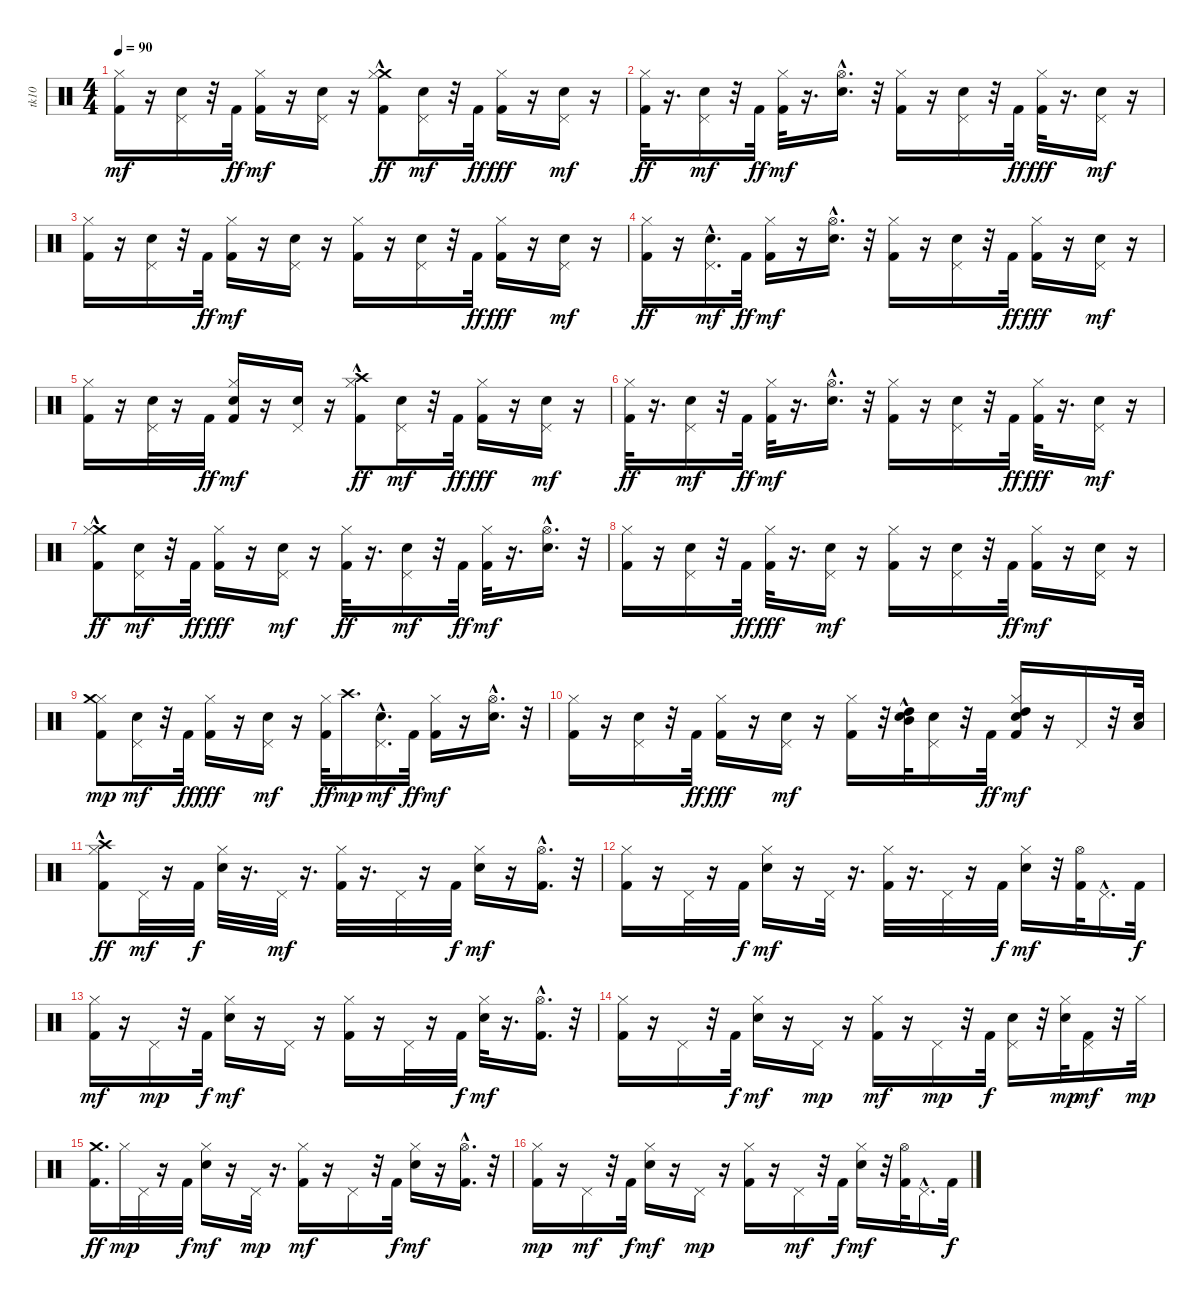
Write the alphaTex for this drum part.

\track ("tk10" "tk10") {instrument percussion}
\staff {score}
\articulation defaults
\ts (4 4)
\tempo 90
\clef neutral
\ks c
("Kick (hit) 2" "Hi-Hat (closed)").16{dy mf} r.16 ("Electric Snare (hit)" "Pedal Hi-Hat (hit)").16 r.32 "Kick (hit) 2".32{dy ff} ("Kick (hit) 2" "Hi-Hat (closed)").16{dy mf} r.16 ("Electric Snare (hit)" "Pedal Hi-Hat (hit)").16 r.16 ("Crash medium (hit)"{hac} "Hi-Hat (closed)" "Kick (hit) 2").8{dy ff} ("Electric Snare (hit)" "Pedal Hi-Hat (hit)").16{dy mf} r.32 "Kick (hit) 2".32{dy ff} ("Kick (hit) 2" "Hi-Hat (closed)").16{dy fff} r.16 ("Electric Snare (hit)" "Pedal Hi-Hat (hit)").16{dy mf} r.16 |
("Kick (hit) 2" "Hi-Hat (closed)").32{dy ff} r.16{d} ("Electric Snare (hit)" "Pedal Hi-Hat (hit)").16{dy mf} r.32 "Kick (hit) 2".32{dy ff} ("Kick (hit) 2" "Hi-Hat (closed)").32{dy mf} r.16{d} ("Electric Snare (hit)" "Hi-Hat (open)"{hac}).16{d} r.32 ("Kick (hit) 2" "Hi-Hat (closed)").16 r.16 ("Electric Snare (hit)" "Pedal Hi-Hat (hit)").16 r.32 "Kick (hit) 2".32{dy ff} ("Hi-Hat (closed)" "Kick (hit) 2").32{dy fff} r.16{d} ("Electric Snare (hit)" "Pedal Hi-Hat (hit)").16{dy mf} r.16 |
("Kick (hit) 2" "Hi-Hat (closed)").16 r.16 ("Electric Snare (hit)" "Pedal Hi-Hat (hit)").16 r.32 "Kick (hit) 2".32{dy ff} ("Kick (hit) 2" "Hi-Hat (closed)").16{dy mf} r.16 ("Electric Snare (hit)" "Pedal Hi-Hat (hit)").16 r.16 ("Kick (hit) 2" "Hi-Hat (closed)").16 r.16 ("Electric Snare (hit)" "Pedal Hi-Hat (hit)").16 r.32 "Kick (hit) 2".32{dy ff} ("Hi-Hat (closed)" "Kick (hit) 2").16{dy fff} r.16 ("Electric Snare (hit)" "Pedal Hi-Hat (hit)").16{dy mf} r.16 |
("Hi-Hat (closed)" "Kick (hit) 2").16{dy ff} r.16 ("Electric Snare (hit)"{hac} "Pedal Hi-Hat (hit)").16{d dy mf} "Kick (hit) 2".32{dy ff} ("Kick (hit) 2" "Hi-Hat (closed)").16{dy mf} r.16 ("Electric Snare (hit)"{hac} "Hi-Hat (open)"{hac}).16{d} r.32 ("Kick (hit) 2" "Hi-Hat (closed)").16 r.16 ("Pedal Hi-Hat (hit)" "Electric Snare (hit)").16 r.32 "Kick (hit) 2".32{dy ff} ("Hi-Hat (closed)" "Kick (hit) 2").16{dy fff} r.16 ("Electric Snare (hit)" "Pedal Hi-Hat (hit)").16{dy mf} r.16 |
("Kick (hit) 2" "Hi-Hat (closed)").16 r.16 ("Pedal Hi-Hat (hit)" "Electric Snare (hit)").32 r.16 "Kick (hit) 2".32{dy ff} ("Kick (hit) 2" "Hi-Hat (closed)" "Electric Snare (hit)").16{dy mf} r.16 ("Pedal Hi-Hat (hit)" "Electric Snare (hit)").16 r.16 ("Crash high (hit)"{hac} "Hi-Hat (closed)" "Kick (hit) 2").8{dy ff} ("Electric Snare (hit)" "Pedal Hi-Hat (hit)").16{dy mf} r.32 "Kick (hit) 2".32{dy ff} ("Kick (hit) 2" "Hi-Hat (closed)").16{dy fff} r.16 ("Electric Snare (hit)" "Pedal Hi-Hat (hit)").16{dy mf} r.16 |
("Kick (hit) 2" "Hi-Hat (closed)").32{dy ff} r.16{d} ("Electric Snare (hit)" "Pedal Hi-Hat (hit)").16{dy mf} r.32 "Kick (hit) 2".32{dy ff} ("Kick (hit) 2" "Hi-Hat (closed)").32{dy mf} r.16{d} ("Electric Snare (hit)" "Hi-Hat (open)"{hac}).16{d} r.32 ("Kick (hit) 2" "Hi-Hat (closed)").16 r.16 ("Electric Snare (hit)" "Pedal Hi-Hat (hit)").16 r.32 "Kick (hit) 2".32{dy ff} ("Hi-Hat (closed)" "Kick (hit) 2").32{dy fff} r.16{d} ("Electric Snare (hit)" "Pedal Hi-Hat (hit)").16{dy mf} r.16 |
("Crash medium (hit)"{hac} "Hi-Hat (closed)" "Kick (hit) 2").8{dy ff} ("Electric Snare (hit)" "Pedal Hi-Hat (hit)").16{dy mf} r.32 "Kick (hit) 2".32{dy ff} ("Kick (hit) 2" "Hi-Hat (closed)").16{dy fff} r.16 ("Electric Snare (hit)" "Pedal Hi-Hat (hit)").16{dy mf} r.16 ("Kick (hit) 2" "Hi-Hat (closed)").32{dy ff} r.16{d} ("Electric Snare (hit)" "Pedal Hi-Hat (hit)").16{dy mf} r.32 "Kick (hit) 2".32{dy ff} ("Kick (hit) 2" "Hi-Hat (closed)").32{dy mf} r.16{d} ("Electric Snare (hit)" "Hi-Hat (open)"{hac}).16{d} r.32 |
("Kick (hit) 2" "Hi-Hat (closed)").16 r.16 ("Electric Snare (hit)" "Pedal Hi-Hat (hit)").16 r.32 "Kick (hit) 2".32{dy ff} ("Hi-Hat (closed)" "Kick (hit) 2").32{dy fff} r.16{d} ("Electric Snare (hit)" "Pedal Hi-Hat (hit)").16{dy mf} r.16 ("Kick (hit) 2" "Hi-Hat (closed)").16 r.16 ("Electric Snare (hit)" "Pedal Hi-Hat (hit)").16 r.32 "Kick (hit) 2".32{dy ff} ("Kick (hit) 2" "Hi-Hat (closed)").16{dy mf} r.16 ("Electric Snare (hit)" "Pedal Hi-Hat (hit)").16 r.16 |
("Kick (hit) 2" "Hi-Hat (closed)" "Crash medium (hit)").8{dy mp} ("Electric Snare (hit)" "Pedal Hi-Hat (hit)").16{dy mf} r.32 "Kick (hit) 2".32{dy ff} ("Hi-Hat (closed)" "Kick (hit) 2").16{dy fff} r.16 ("Electric Snare (hit)" "Pedal Hi-Hat (hit)").16{dy mf} r.16 ("Hi-Hat (closed)" "Kick (hit) 2").32{dy ff} "Crash high (hit)".16{d dy mp} ("Electric Snare (hit)"{hac} "Pedal Hi-Hat (hit)").16{d dy mf} "Kick (hit) 2".32{dy ff} ("Kick (hit) 2" "Hi-Hat (closed)").16{dy mf} r.16 ("Electric Snare (hit)"{hac} "Hi-Hat (open)"{hac}).16{d} r.32 |
("Kick (hit) 2" "Hi-Hat (closed)").16 r.16 ("Pedal Hi-Hat (hit)" "Electric Snare (hit)").16 r.32 "Kick (hit) 2".32{dy ff} ("Hi-Hat (closed)" "Kick (hit) 2").16{dy fff} r.16 ("Electric Snare (hit)" "Pedal Hi-Hat (hit)").16{dy mf} r.16 ("Kick (hit) 2" "Hi-Hat (closed)").16 r.32 ("High Tom (hit)" "Mid Tom (hit)"{hac} "Electric Snare (hit)").32 ("Electric Snare (hit)" "Pedal Hi-Hat (hit)").16 r.32 "Kick (hit) 2".32{dy ff} ("Kick (hit) 2" "Electric Snare (hit)" "Hi-Hat (closed)" "High Tom (hit)").16{dy mf} r.16 "Pedal Hi-Hat (hit)".16 r.32 ("Low Tom (hit)" "Electric Snare (hit)").32 |
("Crash high (hit)"{hac} "Kick (hit) 2" "Hi-Hat (closed)").8{dy ff} "Pedal Hi-Hat (hit)".32{dy mf} r.16 "Kick (hit) 2".32{dy f} ("Electric Snare (hit)" "Hi-Hat (closed)").32 r.16{d} "Pedal Hi-Hat (hit)".32{dy mf} r.16{d} ("Kick (hit) 2" "Hi-Hat (closed)").32 r.16{d} "Pedal Hi-Hat (hit)".32 r.16 "Kick (hit) 2".32{dy f} ("Electric Snare (hit)" "Hi-Hat (closed)").16{dy mf} r.16 ("Kick (hit) 2" "Hi-Hat (open)"{hac}).16{d} r.32 |
("Hi-Hat (closed)" "Kick (hit) 2").16 r.16 "Pedal Hi-Hat (hit)".32 r.16 "Kick (hit) 2".32{dy f} ("Electric Snare (hit)" "Hi-Hat (closed)").16{dy mf} r.16 "Pedal Hi-Hat (hit)".32 r.16{d} ("Kick (hit) 2" "Hi-Hat (closed)").32 r.16{d} "Pedal Hi-Hat (hit)".32 r.16 "Kick (hit) 2".32{dy f} ("Electric Snare (hit)" "Hi-Hat (closed)").16{dy mf} r.32 ("Kick (hit) 2" "Hi-Hat (open)").32 "Pedal Hi-Hat (hit)"{hac}.16{d} "Kick (hit) 2".32{dy f} |
("Kick (hit) 2" "Hi-Hat (closed)").16{dy mf} r.16 "Pedal Hi-Hat (hit)".16{dy mp} r.32 "Kick (hit) 2".32{dy f} ("Electric Snare (hit)" "Hi-Hat (closed)").16{dy mf} r.16 "Pedal Hi-Hat (hit)".16 r.16 ("Hi-Hat (closed)" "Kick (hit) 2").16 r.16 "Pedal Hi-Hat (hit)".32 r.16 "Kick (hit) 2".32{dy f} ("Electric Snare (hit)" "Hi-Hat (closed)").32{dy mf} r.16{d} ("Hi-Hat (open)"{hac} "Kick (hit) 2").16{d} r.32 |
("Hi-Hat (closed)" "Kick (hit) 2").16 r.16 "Pedal Hi-Hat (hit)".16 r.32 "Kick (hit) 2".32{dy f} ("Electric Snare (hit)" "Hi-Hat (closed)").16{dy mf} r.16 "Pedal Hi-Hat (hit)".16{dy mp} r.16 ("Kick (hit) 2" "Hi-Hat (closed)").16{dy mf} r.16 "Pedal Hi-Hat (hit)".16{dy mp} r.32 "Kick (hit) 2".32{dy f} ("Electric Snare (hit)" "Pedal Hi-Hat (hit)").16 r.32 ("Electric Snare (hit)" "Hi-Hat (closed)").32{dy mp} ("Kick (hit) 2" "Pedal Hi-Hat (hit)").16{dy mf} r.32 "Hi-Hat (closed)".32{dy mp} |
("Crash medium (hit)" "Kick (hit) 2").16{d dy ff} "Hi-Hat (closed)".32{dy mp} "Pedal Hi-Hat (hit)".32 r.16 "Kick (hit) 2".32{dy f} ("Hi-Hat (closed)" "Electric Snare (hit)").16{dy mf} r.16 "Pedal Hi-Hat (hit)".32{dy mp} r.16{d} ("Hi-Hat (closed)" "Kick (hit) 2").16{dy mf} r.16 "Pedal Hi-Hat (hit)".16 r.32 "Kick (hit) 2".32{dy f} ("Hi-Hat (closed)" "Electric Snare (hit)").16{dy mf} r.16 ("Hi-Hat (open)"{hac} "Kick (hit) 2").16{d} r.32 |
("Hi-Hat (closed)" "Kick (hit) 2").16{dy mp} r.16 "Pedal Hi-Hat (hit)".16{dy mf} r.32 "Kick (hit) 2".32{dy f} ("Hi-Hat (closed)" "Electric Snare (hit)").16{dy mf} r.16 "Pedal Hi-Hat (hit)".16{dy mp} r.16 ("Kick (hit) 2" "Hi-Hat (closed)").16 r.16 "Pedal Hi-Hat (hit)".16{dy mf} r.32 "Kick (hit) 2".32{dy f} ("Electric Snare (hit)" "Hi-Hat (closed)").16{dy mf} r.32 ("Hi-Hat (open)" "Kick (hit) 2").32 "Pedal Hi-Hat (hit)"{hac}.16{d} "Kick (hit) 2".32{dy f}
